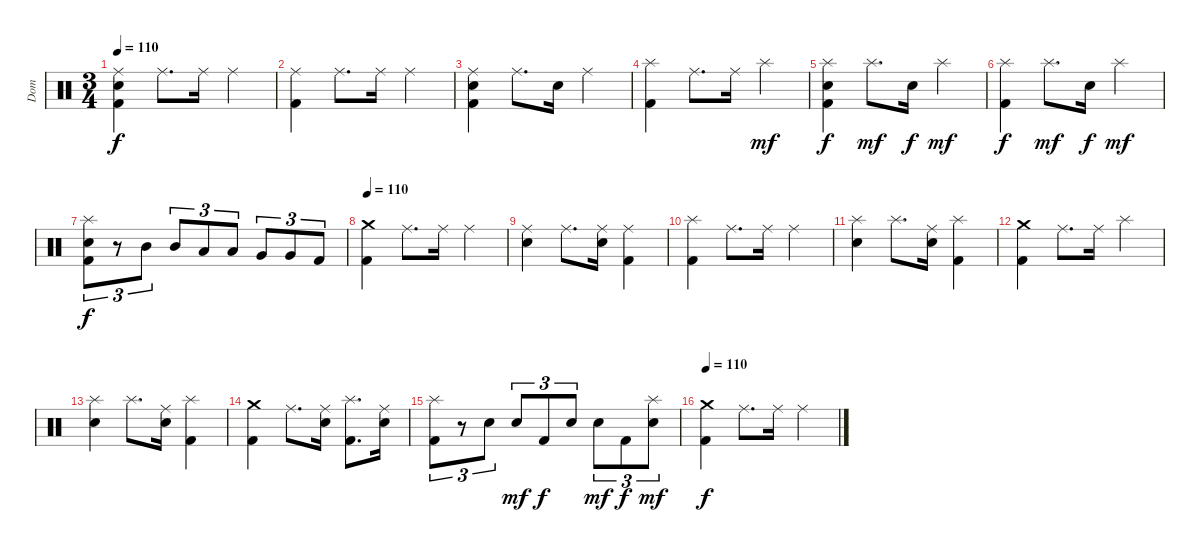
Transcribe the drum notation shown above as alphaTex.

\track ("Dom" "Dom") {instrument percussion}
\staff {score}
\articulation defaults
\ts (3 4)
\tempo 110
\clef neutral
\ks c
("Ride (middle)" "Snare (hit) 2" "Kick (hit) 2").4{dy f} "Ride (middle)".8{d} "Ride (middle)".16 "Ride (middle)".4 |
("Ride (middle)" "Kick (hit) 2").4 "Ride (middle)".8{d} "Ride (middle)".16 "Ride (middle)".4 |
("Ride (middle)" "Snare (hit) 2" "Kick (hit) 2").4 "Ride (middle)".8{d} "Snare (hit) 2".16 "Ride (middle)".4 |
("Splash (hit)" "Kick (hit) 2").4 "Ride (middle)".8{d} "Ride (middle)".16 "Splash (hit)".4{dy mf} |
("Splash (hit)" "Snare (hit) 2" "Kick (hit) 2").4{dy f} "Splash (hit)".8{d dy mf} "Snare (hit) 2".16{dy f} "Splash (hit)".4{dy mf} |
("Splash (hit)" "Kick (hit) 2").4{dy f} "Splash (hit)".8{d dy mf} "Snare (hit) 2".16{dy f} "Splash (hit)".4{dy mf} |
("Splash (hit)" "Snare (hit) 2" "Kick (hit) 2").8{tu (3 2) dy f} r.8{tu (3 2)} "Mid Tom (hit)".8{tu (3 2)} "Mid Tom (hit)".8{tu (3 2)} "Low Tom (hit)".8{tu (3 2)} "Low Tom (hit)".8{tu (3 2)} "Very Low Tom (hit)".8{tu (3 2)} "Very Low Tom (hit)".8{tu (3 2)} "Kick (hit) 2".8{tu (3 2)} |
\tempo 110
("Crash medium (hit)" "Kick (hit) 2").4 "Ride (middle)".8{d} "Ride (middle)".16 "Ride (middle)".4 |
("Ride (middle)" "Snare (hit) 2").4 "Ride (middle)".8{d} ("Ride (middle)" "Snare (hit) 2").16 ("Ride (middle)" "Kick (hit) 2").4 |
("Splash (hit)" "Kick (hit) 2").4 "Ride (middle)".8{d} "Ride (middle)".16 "Ride (middle)".4 |
("Splash (hit)" "Snare (hit) 2").4 "Splash (hit)".8{d} ("Ride (middle)" "Snare (hit) 2").16 ("Splash (hit)" "Kick (hit) 2").4 |
("Crash medium (hit)" "Kick (hit) 2").4 "Ride (middle)".8{d} "Ride (middle)".16 "Splash (hit)".4 |
("Splash (hit)" "Snare (hit) 2").4 "Splash (hit)".8{d} ("Ride (middle)" "Snare (hit) 2").16 ("Splash (hit)" "Kick (hit) 2").4 |
("Crash medium (hit)" "Kick (hit) 2").4 "Ride (middle)".8{d} ("Ride (middle)" "Snare (hit) 2").16 ("Splash (hit)" "Kick (hit) 2").8{d} ("Ride (middle)" "Snare (hit) 2").16 |
("Splash (hit)" "Kick (hit) 2").8{tu (3 2)} r.8{tu (3 2)} "Snare (hit) 2".8{tu (3 2)} "Snare (hit) 2".8{tu (3 2) dy mf} "Kick (hit) 2".8{tu (3 2) dy f} "Snare (hit) 2".8{tu (3 2)} "Snare (hit) 2".8{tu (3 2) dy mf} "Kick (hit) 2".8{tu (3 2) dy f} ("Splash (hit)" "Snare (hit) 2").8{tu (3 2) dy mf} |
\tempo 110
("Crash medium (hit)" "Kick (hit) 2").4{dy f} "Ride (middle)".8{d} "Ride (middle)".16 "Ride (middle)".4
